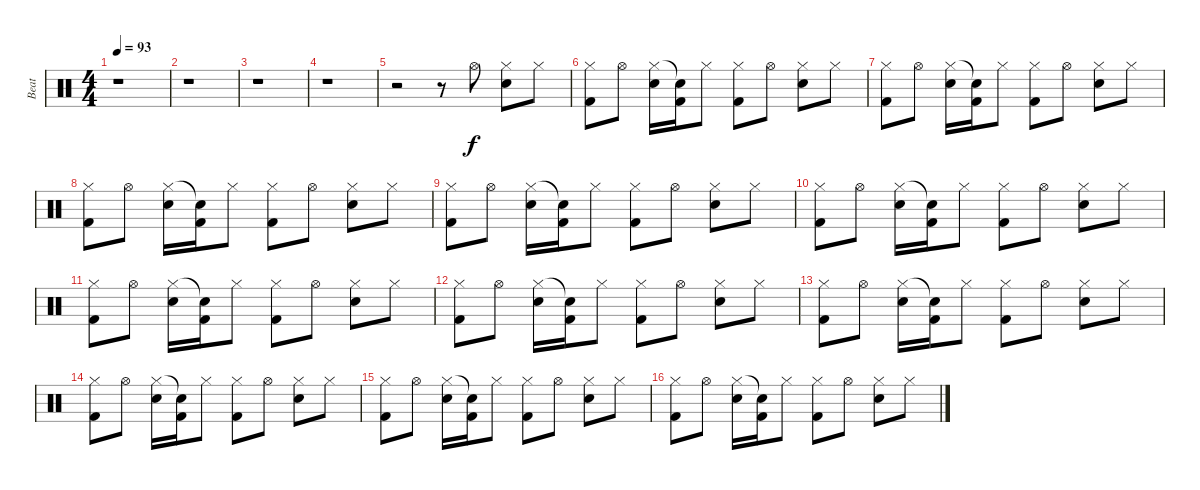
\track ("Beat" "Beat") {instrument percussion}
\staff {score}
\articulation defaults
\ts (4 4)
\tempo 93
\clef neutral
\ks c
r.1{dy f} |
r.1 |
r.1 |
r.1 |
r.2 r.8 "Hi-Hat (open)".8 ("Hi-Hat (closed)" "Snare (hit) 2").8 "Hi-Hat (closed)".8 |
("Hi-Hat (closed)" "Kick (hit) 2").8 "Hi-Hat (open)".8 ("Hi-Hat (closed)" "Snare (hit) 2").16 ("Snare (hit)"{t} "Kick (hit) 2").16 "Hi-Hat (closed)".8 ("Hi-Hat (closed)" "Kick (hit) 2").8 "Hi-Hat (open)".8 ("Hi-Hat (closed)" "Snare (hit) 2").8 "Hi-Hat (closed)".8 |
("Hi-Hat (closed)" "Kick (hit) 2").8 "Hi-Hat (open)".8 ("Hi-Hat (closed)" "Snare (hit) 2").16 ("Snare (hit)"{t} "Kick (hit) 2").16 "Hi-Hat (closed)".8 ("Hi-Hat (closed)" "Kick (hit) 2").8 "Hi-Hat (open)".8 ("Hi-Hat (closed)" "Snare (hit) 2").8 "Hi-Hat (closed)".8 |
("Hi-Hat (closed)" "Kick (hit) 2").8 "Hi-Hat (open)".8 ("Hi-Hat (closed)" "Snare (hit) 2").16 ("Snare (hit)"{t} "Kick (hit) 2").16 "Hi-Hat (closed)".8 ("Hi-Hat (closed)" "Kick (hit) 2").8 "Hi-Hat (open)".8 ("Hi-Hat (closed)" "Snare (hit) 2").8 "Hi-Hat (closed)".8 |
("Hi-Hat (closed)" "Kick (hit) 2").8 "Hi-Hat (open)".8 ("Hi-Hat (closed)" "Snare (hit) 2").16 ("Snare (hit)"{t} "Kick (hit) 2").16 "Hi-Hat (closed)".8 ("Hi-Hat (closed)" "Kick (hit) 2").8 "Hi-Hat (open)".8 ("Hi-Hat (closed)" "Snare (hit) 2").8 "Hi-Hat (closed)".8 |
("Hi-Hat (closed)" "Kick (hit) 2").8 "Hi-Hat (open)".8 ("Hi-Hat (closed)" "Snare (hit) 2").16 ("Snare (hit)"{t} "Kick (hit) 2").16 "Hi-Hat (closed)".8 ("Hi-Hat (closed)" "Kick (hit) 2").8 "Hi-Hat (open)".8 ("Hi-Hat (closed)" "Snare (hit) 2").8 "Hi-Hat (closed)".8 |
("Hi-Hat (closed)" "Kick (hit) 2").8 "Hi-Hat (open)".8 ("Hi-Hat (closed)" "Snare (hit) 2").16 ("Snare (hit)"{t} "Kick (hit) 2").16 "Hi-Hat (closed)".8 ("Hi-Hat (closed)" "Kick (hit) 2").8 "Hi-Hat (open)".8 ("Hi-Hat (closed)" "Snare (hit) 2").8 "Hi-Hat (closed)".8 |
("Hi-Hat (closed)" "Kick (hit) 2").8 "Hi-Hat (open)".8 ("Hi-Hat (closed)" "Snare (hit) 2").16 ("Snare (hit)"{t} "Kick (hit) 2").16 "Hi-Hat (closed)".8 ("Hi-Hat (closed)" "Kick (hit) 2").8 "Hi-Hat (open)".8 ("Hi-Hat (closed)" "Snare (hit) 2").8 "Hi-Hat (closed)".8 |
("Hi-Hat (closed)" "Kick (hit) 2").8 "Hi-Hat (open)".8 ("Hi-Hat (closed)" "Snare (hit) 2").16 ("Snare (hit)"{t} "Kick (hit) 2").16 "Hi-Hat (closed)".8 ("Hi-Hat (closed)" "Kick (hit) 2").8 "Hi-Hat (open)".8 ("Hi-Hat (closed)" "Snare (hit) 2").8 "Hi-Hat (closed)".8 |
("Hi-Hat (closed)" "Kick (hit) 2").8 "Hi-Hat (open)".8 ("Hi-Hat (closed)" "Snare (hit) 2").16 ("Snare (hit)"{t} "Kick (hit) 2").16 "Hi-Hat (closed)".8 ("Hi-Hat (closed)" "Kick (hit) 2").8 "Hi-Hat (open)".8 ("Hi-Hat (closed)" "Snare (hit) 2").8 "Hi-Hat (closed)".8 |
("Hi-Hat (closed)" "Kick (hit) 2").8 "Hi-Hat (open)".8 ("Hi-Hat (closed)" "Snare (hit) 2").16 ("Snare (hit)"{t} "Kick (hit) 2").16 "Hi-Hat (closed)".8 ("Hi-Hat (closed)" "Kick (hit) 2").8 "Hi-Hat (open)".8 ("Hi-Hat (closed)" "Snare (hit) 2").8 "Hi-Hat (closed)".8 |
("Hi-Hat (closed)" "Kick (hit) 2").8 "Hi-Hat (open)".8 ("Hi-Hat (closed)" "Snare (hit) 2").16 ("Snare (hit)"{t} "Kick (hit) 2").16 "Hi-Hat (closed)".8 ("Hi-Hat (closed)" "Kick (hit) 2").8 "Hi-Hat (open)".8 ("Hi-Hat (closed)" "Snare (hit) 2").8 "Hi-Hat (closed)".8
